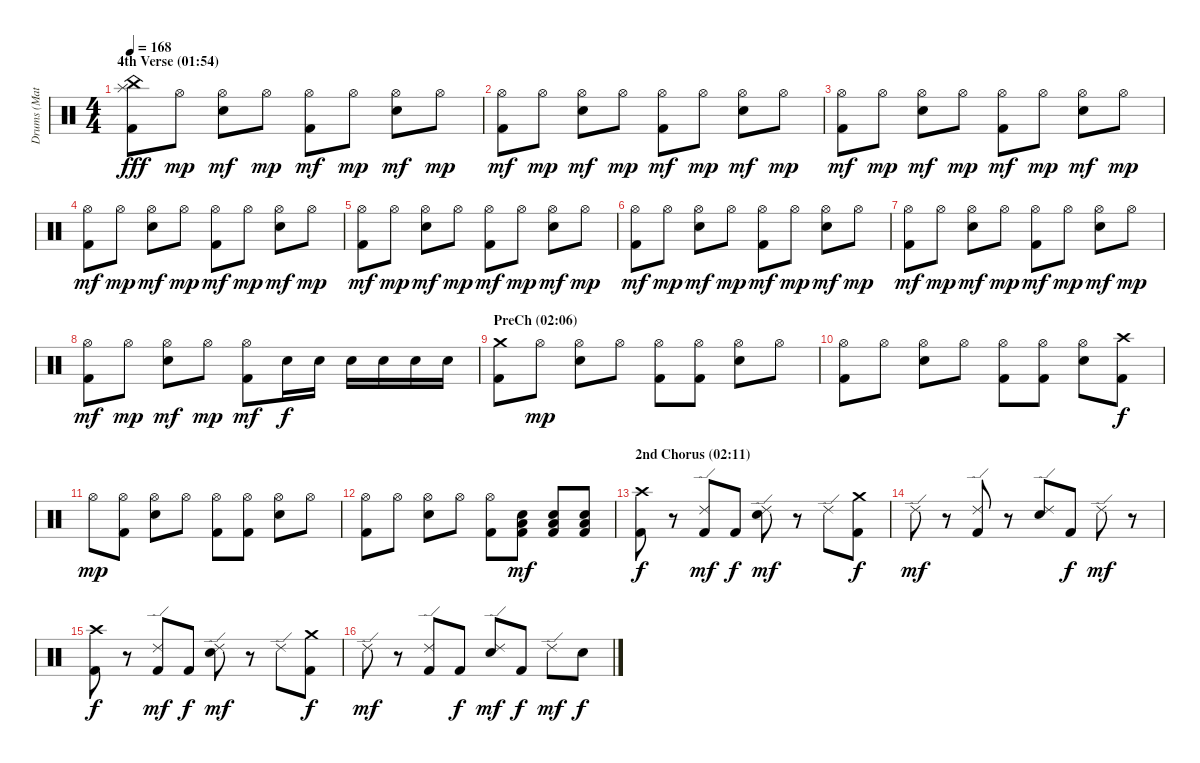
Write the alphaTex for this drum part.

\track ("Drums (Matt Sorum)" "Drums (Mat") {instrument percussion}
\staff {score}
\articulation defaults
\ts (4 4)
\section ("" "4th Verse (01:54)")
\tempo 168
\clef neutral
\ks c
("China (hit)" "Splash (hit)" "Kick (hit) 2").8{dy fff} "Hi-Hat (open)".8{dy mp} ("Hi-Hat (open)" "Electric Snare (hit)").8{dy mf} "Hi-Hat (open)".8{dy mp} ("Hi-Hat (open)" "Kick (hit) 2").8{dy mf} "Hi-Hat (open)".8{dy mp} ("Hi-Hat (open)" "Electric Snare (hit)").8{dy mf} "Hi-Hat (open)".8{dy mp} |
("Hi-Hat (open)" "Kick (hit) 2").8{dy mf} "Hi-Hat (open)".8{dy mp} ("Hi-Hat (open)" "Electric Snare (hit)").8{dy mf} "Hi-Hat (open)".8{dy mp} ("Hi-Hat (open)" "Kick (hit) 2").8{dy mf} "Hi-Hat (open)".8{dy mp} ("Hi-Hat (open)" "Electric Snare (hit)").8{dy mf} "Hi-Hat (open)".8{dy mp} |
("Hi-Hat (open)" "Kick (hit) 2").8{dy mf} "Hi-Hat (open)".8{dy mp} ("Hi-Hat (open)" "Electric Snare (hit)").8{dy mf} "Hi-Hat (open)".8{dy mp} ("Hi-Hat (open)" "Kick (hit) 2").8{dy mf} "Hi-Hat (open)".8{dy mp} ("Hi-Hat (open)" "Electric Snare (hit)").8{dy mf} "Hi-Hat (open)".8{dy mp} |
("Hi-Hat (open)" "Kick (hit) 2").8{dy mf} "Hi-Hat (open)".8{dy mp} ("Hi-Hat (open)" "Electric Snare (hit)").8{dy mf} "Hi-Hat (open)".8{dy mp} ("Hi-Hat (open)" "Kick (hit) 2").8{dy mf} "Hi-Hat (open)".8{dy mp} ("Hi-Hat (open)" "Electric Snare (hit)").8{dy mf} "Hi-Hat (open)".8{dy mp} |
("Hi-Hat (open)" "Kick (hit) 2").8{dy mf} "Hi-Hat (open)".8{dy mp} ("Hi-Hat (open)" "Electric Snare (hit)").8{dy mf} "Hi-Hat (open)".8{dy mp} ("Hi-Hat (open)" "Kick (hit) 2").8{dy mf} "Hi-Hat (open)".8{dy mp} ("Hi-Hat (open)" "Electric Snare (hit)").8{dy mf} "Hi-Hat (open)".8{dy mp} |
("Hi-Hat (open)" "Kick (hit) 2").8{dy mf} "Hi-Hat (open)".8{dy mp} ("Hi-Hat (open)" "Electric Snare (hit)").8{dy mf} "Hi-Hat (open)".8{dy mp} ("Hi-Hat (open)" "Kick (hit) 2").8{dy mf} "Hi-Hat (open)".8{dy mp} ("Hi-Hat (open)" "Electric Snare (hit)").8{dy mf} "Hi-Hat (open)".8{dy mp} |
("Hi-Hat (open)" "Kick (hit) 2").8{dy mf} "Hi-Hat (open)".8{dy mp} ("Hi-Hat (open)" "Electric Snare (hit)").8{dy mf} "Hi-Hat (open)".8{dy mp} ("Hi-Hat (open)" "Kick (hit) 2").8{dy mf} "Hi-Hat (open)".8{dy mp} ("Hi-Hat (open)" "Electric Snare (hit)").8{dy mf} "Hi-Hat (open)".8{dy mp} |
("Hi-Hat (open)" "Kick (hit) 2").8{dy mf} "Hi-Hat (open)".8{dy mp} ("Hi-Hat (open)" "Electric Snare (hit)").8{dy mf} "Hi-Hat (open)".8{dy mp} ("Hi-Hat (open)" "Kick (hit) 2").8{dy mf} "Electric Snare (hit)".16{dy f} "Electric Snare (hit)".16 "Electric Snare (hit)".16 "Electric Snare (hit)".16 "Electric Snare (hit)".16 "Electric Snare (hit)".16 |
\section ("" "PreCh (02:06)")
("Crash medium (hit)" "Kick (hit) 2").8 "Hi-Hat (open)".8{dy mp} ("Hi-Hat (open)" "Electric Snare (hit)").8 "Hi-Hat (open)".8 ("Hi-Hat (open)" "Kick (hit) 2").8 ("Hi-Hat (open)" "Kick (hit) 2").8 ("Hi-Hat (open)" "Electric Snare (hit)").8 "Hi-Hat (open)".8 |
("Hi-Hat (open)" "Kick (hit) 2").8 "Hi-Hat (open)".8 ("Hi-Hat (open)" "Electric Snare (hit)").8 "Hi-Hat (open)".8 ("Hi-Hat (open)" "Kick (hit) 2").8 ("Hi-Hat (open)" "Kick (hit) 2").8 ("Hi-Hat (open)" "Electric Snare (hit)").8 ("Crash high (hit)" "Kick (hit) 2").8{dy f} |
"Hi-Hat (open)".8{dy mp} ("Hi-Hat (open)" "Kick (hit) 2").8 ("Hi-Hat (open)" "Electric Snare (hit)").8 "Hi-Hat (open)".8 ("Hi-Hat (open)" "Kick (hit) 2").8 ("Hi-Hat (open)" "Kick (hit) 2").8 ("Hi-Hat (open)" "Electric Snare (hit)").8 "Hi-Hat (open)".8 |
("Hi-Hat (open)" "Kick (hit) 2").8 "Hi-Hat (open)".8 ("Hi-Hat (open)" "Electric Snare (hit)").8 "Hi-Hat (open)".8 ("Hi-Hat (open)" "Kick (hit) 2").8 ("Electric Snare (hit)" "Low Tom (hit)" "Kick (hit) 2").8{dy mf} ("Electric Snare (hit)" "Low Tom (hit)" "Kick (hit) 2").8 ("Electric Snare (hit)" "Low Tom (hit)" "Kick (hit) 2").8 |
\section ("" "2nd Chorus (02:11)")
("Crash high (hit)" "Kick (hit) 2").8{dy f} r.8 ("Ride (edge) 2" "Kick (hit) 2").8{dy mf} "Kick (hit) 2".8{dy f} ("Ride (edge) 2" "Electric Snare (hit)").8{dy mf} r.8 "Ride (edge) 2".8 ("Crash medium (hit)" "Kick (hit) 2").8{dy f} |
"Ride (edge) 2".8{dy mf} r.8 ("Ride (edge) 2" "Kick (hit) 2").8 r.8 ("Ride (edge) 2" "Electric Snare (hit)").8 "Kick (hit) 2".8{dy f} "Ride (edge) 2".8{dy mf} r.8 |
("Crash high (hit)" "Kick (hit) 2").8{dy f} r.8 ("Ride (edge) 2" "Kick (hit) 2").8{dy mf} "Kick (hit) 2".8{dy f} ("Ride (edge) 2" "Electric Snare (hit)").8{dy mf} r.8 "Ride (edge) 2".8 ("Crash medium (hit)" "Kick (hit) 2").8{dy f} |
"Ride (edge) 2".8{dy mf} r.8 ("Ride (edge) 2" "Kick (hit) 2").8 "Kick (hit) 2".8{dy f} ("Ride (edge) 2" "Electric Snare (hit)").8{dy mf} "Kick (hit) 2".8{dy f} "Ride (edge) 2".8{dy mf} "Electric Snare (hit)".8{dy f}
